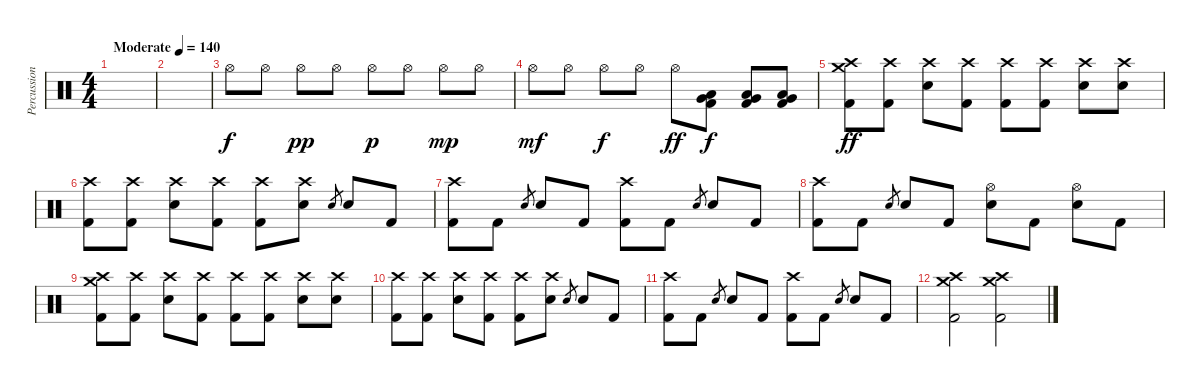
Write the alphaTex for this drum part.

\track ("Percussion" "Percussion") {instrument percussion}
\staff {score}
\articulation defaults
\ts (4 4)
\tempo (140 "Moderate")
\clef neutral
\ks c
|
|
"Hi-Hat (open)".8 "Hi-Hat (open)".8 "Hi-Hat (open)".8{dy pp} "Hi-Hat (open)".8 "Hi-Hat (open)".8{dy p} "Hi-Hat (open)".8 "Hi-Hat (open)".8{dy mp} "Hi-Hat (open)".8 |
"Hi-Hat (open)".8{dy mf} "Hi-Hat (open)".8 "Hi-Hat (open)".8{dy f} "Hi-Hat (open)".8 "Hi-Hat (open)".8{dy ff} ("Low Floor Tom (hit)" "Very Low Tom (hit)" "Kick (hit) 2").8{dy f} ("Low Floor Tom (hit)" "Very Low Tom (hit)" "Kick (hit) 2").8 ("Low Floor Tom (hit)" "Very Low Tom (hit)" "Kick (hit) 2").8 |
("Crash high (hit)" "Kick (hit) 2" "Crash medium (hit)").8{dy ff} ("Crash high (hit)" "Kick (hit) 2").8 ("Crash high (hit)" "Electric Snare (hit)").8 ("Crash high (hit)" "Kick (hit) 2").8 ("Crash high (hit)" "Kick (hit) 2").8 ("Crash high (hit)" "Kick (hit) 2").8 ("Crash high (hit)" "Electric Snare (hit)").8 ("Crash high (hit)" "Electric Snare (hit)").8 |
("Crash high (hit)" "Kick (hit) 2").8 ("Crash high (hit)" "Kick (hit) 2").8 ("Crash high (hit)" "Electric Snare (hit)").8 ("Crash high (hit)" "Kick (hit) 2").8 ("Crash high (hit)" "Kick (hit) 2").8 ("Crash high (hit)" "Electric Snare (hit)").8 "Electric Snare (hit)".8{gr} "Electric Snare (hit)".8 "Kick (hit) 2".8 |
("Crash high (hit)" "Kick (hit) 2").8 "Kick (hit) 2".8 "Electric Snare (hit)".8{gr} "Electric Snare (hit)".8 "Kick (hit) 2".8 ("Crash high (hit)" "Kick (hit) 2").8 "Kick (hit) 2".8 "Electric Snare (hit)".8{gr} "Electric Snare (hit)".8 "Kick (hit) 2".8 |
("Crash high (hit)" "Kick (hit) 2").8 "Kick (hit) 2".8 "Electric Snare (hit)".8{gr} "Electric Snare (hit)".8 "Kick (hit) 2".8 ("Hi-Hat (open)" "Electric Snare (hit)").8 "Kick (hit) 2".8 ("Hi-Hat (open)" "Electric Snare (hit)").8 "Kick (hit) 2".8 |
("Crash high (hit)" "Kick (hit) 2" "Crash medium (hit)").8 ("Crash high (hit)" "Kick (hit) 2").8 ("Crash high (hit)" "Electric Snare (hit)").8 ("Crash high (hit)" "Kick (hit) 2").8 ("Crash high (hit)" "Kick (hit) 2").8 ("Crash high (hit)" "Kick (hit) 2").8 ("Crash high (hit)" "Electric Snare (hit)").8 ("Crash high (hit)" "Electric Snare (hit)").8 |
("Crash high (hit)" "Kick (hit) 2").8 ("Crash high (hit)" "Kick (hit) 2").8 ("Crash high (hit)" "Electric Snare (hit)").8 ("Crash high (hit)" "Kick (hit) 2").8 ("Crash high (hit)" "Kick (hit) 2").8 ("Crash high (hit)" "Electric Snare (hit)").8 "Electric Snare (hit)".8{gr} "Electric Snare (hit)".8 "Kick (hit) 2".8 |
("Crash high (hit)" "Kick (hit) 2").8 "Kick (hit) 2".8 "Electric Snare (hit)".8{gr} "Electric Snare (hit)".8 "Kick (hit) 2".8 ("Crash high (hit)" "Kick (hit) 2").8 "Kick (hit) 2".8 "Electric Snare (hit)".8{gr} "Electric Snare (hit)".8 "Kick (hit) 2".8 |
("Crash high (hit)" "Kick (hit) 2" "Crash medium (hit)").2 ("Crash high (hit)" "Kick (hit) 2" "Crash medium (hit)").2
